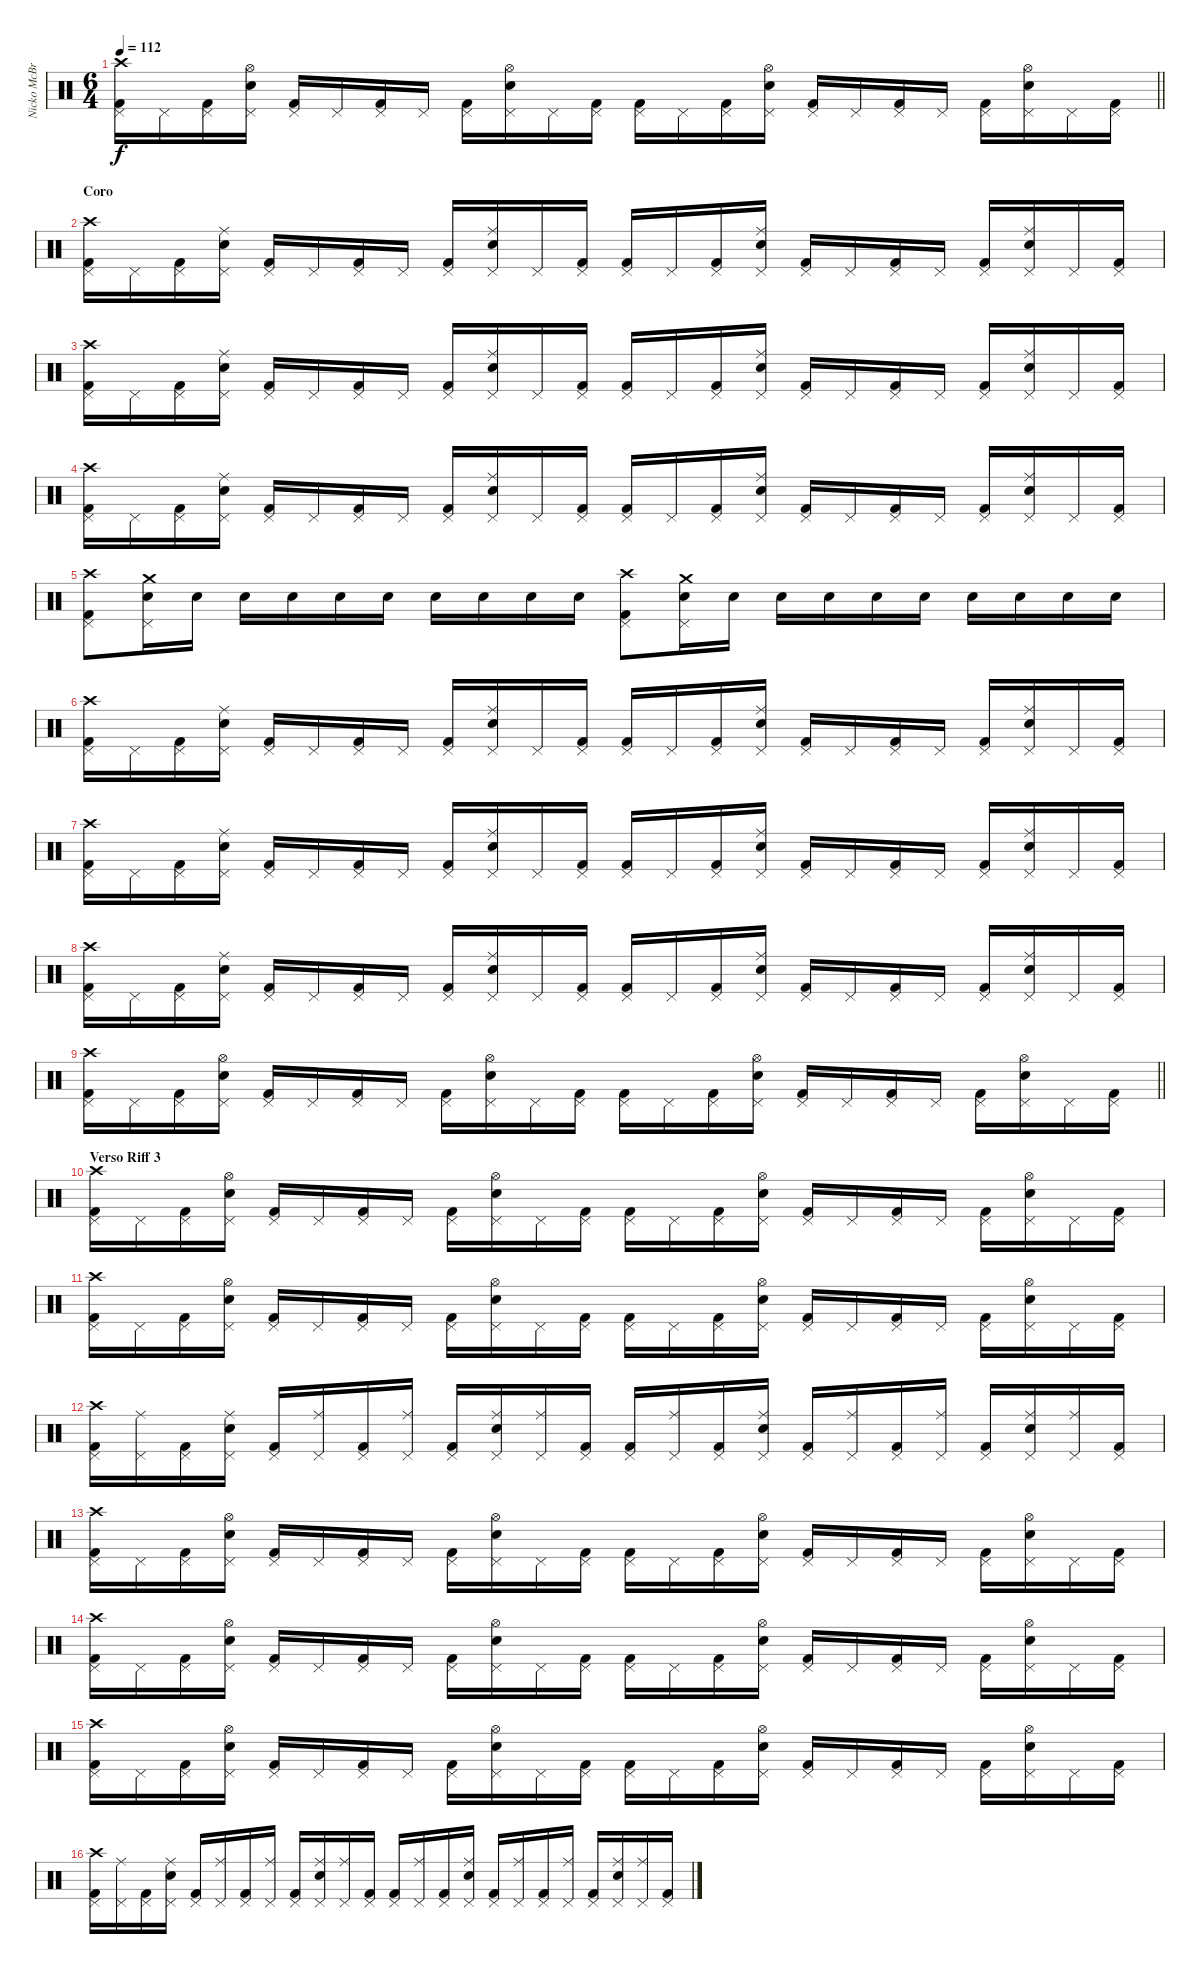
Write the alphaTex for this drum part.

\track ("Nicko McBrain" "Nicko McBr") {instrument percussion}
\staff {score}
\articulation defaults
\ts (6 4)
\tempo 112
\clef neutral
\barLineRight lightlight
\ks c
("Kick (hit) 2" "Pedal Hi-Hat (hit)" "Crash high (hit)").16{dy f} "Pedal Hi-Hat (hit)".16 ("Kick (hit) 2" "Pedal Hi-Hat (hit)").16 ("Snare (hit) 2" "Pedal Hi-Hat (hit)" "Hi-Hat (open)").16 ("Kick (hit) 2" "Pedal Hi-Hat (hit)").16 "Pedal Hi-Hat (hit)".16 ("Kick (hit) 2" "Pedal Hi-Hat (hit)").16 "Pedal Hi-Hat (hit)".16 ("Kick (hit) 2" "Pedal Hi-Hat (hit)").16 ("Snare (hit) 2" "Pedal Hi-Hat (hit)" "Hi-Hat (open)").16 "Pedal Hi-Hat (hit)".16 ("Kick (hit) 2" "Pedal Hi-Hat (hit)").16 ("Kick (hit) 2" "Pedal Hi-Hat (hit)").16 "Pedal Hi-Hat (hit)".16 ("Kick (hit) 2" "Pedal Hi-Hat (hit)").16 ("Snare (hit) 2" "Pedal Hi-Hat (hit)" "Hi-Hat (open)").16 ("Kick (hit) 2" "Pedal Hi-Hat (hit)").16 "Pedal Hi-Hat (hit)".16 ("Kick (hit) 2" "Pedal Hi-Hat (hit)").16 "Pedal Hi-Hat (hit)".16 ("Kick (hit) 2" "Pedal Hi-Hat (hit)").16 ("Snare (hit) 2" "Pedal Hi-Hat (hit)" "Hi-Hat (open)").16 "Pedal Hi-Hat (hit)".16 ("Kick (hit) 2" "Pedal Hi-Hat (hit)").16 |
\section ("" "Coro")
("Kick (hit) 2" "Pedal Hi-Hat (hit)" "Crash high (hit)").16 "Pedal Hi-Hat (hit)".16 ("Kick (hit) 2" "Pedal Hi-Hat (hit)").16 ("Snare (hit) 2" "Pedal Hi-Hat (hit)" "Ride (middle)").16 ("Kick (hit) 2" "Pedal Hi-Hat (hit)").16 "Pedal Hi-Hat (hit)".16 ("Kick (hit) 2" "Pedal Hi-Hat (hit)").16 "Pedal Hi-Hat (hit)".16 ("Kick (hit) 2" "Pedal Hi-Hat (hit)").16 ("Snare (hit) 2" "Pedal Hi-Hat (hit)" "Ride (middle)").16 "Pedal Hi-Hat (hit)".16 ("Kick (hit) 2" "Pedal Hi-Hat (hit)").16 ("Kick (hit) 2" "Pedal Hi-Hat (hit)").16 "Pedal Hi-Hat (hit)".16 ("Kick (hit) 2" "Pedal Hi-Hat (hit)").16 ("Snare (hit) 2" "Pedal Hi-Hat (hit)" "Ride (middle)").16 ("Kick (hit) 2" "Pedal Hi-Hat (hit)").16 "Pedal Hi-Hat (hit)".16 ("Kick (hit) 2" "Pedal Hi-Hat (hit)").16 "Pedal Hi-Hat (hit)".16 ("Kick (hit) 2" "Pedal Hi-Hat (hit)").16 ("Snare (hit) 2" "Pedal Hi-Hat (hit)" "Ride (middle)").16 "Pedal Hi-Hat (hit)".16 ("Kick (hit) 2" "Pedal Hi-Hat (hit)").16 |
("Kick (hit) 2" "Pedal Hi-Hat (hit)" "Crash high (hit)").16 "Pedal Hi-Hat (hit)".16 ("Kick (hit) 2" "Pedal Hi-Hat (hit)").16 ("Snare (hit) 2" "Pedal Hi-Hat (hit)" "Ride (middle)").16 ("Kick (hit) 2" "Pedal Hi-Hat (hit)").16 "Pedal Hi-Hat (hit)".16 ("Kick (hit) 2" "Pedal Hi-Hat (hit)").16 "Pedal Hi-Hat (hit)".16 ("Kick (hit) 2" "Pedal Hi-Hat (hit)").16 ("Snare (hit) 2" "Pedal Hi-Hat (hit)" "Ride (middle)").16 "Pedal Hi-Hat (hit)".16 ("Kick (hit) 2" "Pedal Hi-Hat (hit)").16 ("Kick (hit) 2" "Pedal Hi-Hat (hit)").16 "Pedal Hi-Hat (hit)".16 ("Kick (hit) 2" "Pedal Hi-Hat (hit)").16 ("Snare (hit) 2" "Pedal Hi-Hat (hit)" "Ride (middle)").16 ("Kick (hit) 2" "Pedal Hi-Hat (hit)").16 "Pedal Hi-Hat (hit)".16 ("Kick (hit) 2" "Pedal Hi-Hat (hit)").16 "Pedal Hi-Hat (hit)".16 ("Kick (hit) 2" "Pedal Hi-Hat (hit)").16 ("Snare (hit) 2" "Pedal Hi-Hat (hit)" "Ride (middle)").16 "Pedal Hi-Hat (hit)".16 ("Kick (hit) 2" "Pedal Hi-Hat (hit)").16 |
("Kick (hit) 2" "Pedal Hi-Hat (hit)" "Crash high (hit)").16 "Pedal Hi-Hat (hit)".16 ("Kick (hit) 2" "Pedal Hi-Hat (hit)").16 ("Snare (hit) 2" "Pedal Hi-Hat (hit)" "Ride (middle)").16 ("Kick (hit) 2" "Pedal Hi-Hat (hit)").16 "Pedal Hi-Hat (hit)".16 ("Kick (hit) 2" "Pedal Hi-Hat (hit)").16 "Pedal Hi-Hat (hit)".16 ("Kick (hit) 2" "Pedal Hi-Hat (hit)").16 ("Snare (hit) 2" "Pedal Hi-Hat (hit)" "Ride (middle)").16 "Pedal Hi-Hat (hit)".16 ("Kick (hit) 2" "Pedal Hi-Hat (hit)").16 ("Kick (hit) 2" "Pedal Hi-Hat (hit)").16 "Pedal Hi-Hat (hit)".16 ("Kick (hit) 2" "Pedal Hi-Hat (hit)").16 ("Snare (hit) 2" "Pedal Hi-Hat (hit)" "Ride (middle)").16 ("Kick (hit) 2" "Pedal Hi-Hat (hit)").16 "Pedal Hi-Hat (hit)".16 ("Kick (hit) 2" "Pedal Hi-Hat (hit)").16 "Pedal Hi-Hat (hit)".16 ("Kick (hit) 2" "Pedal Hi-Hat (hit)").16 ("Snare (hit) 2" "Pedal Hi-Hat (hit)" "Ride (middle)").16 "Pedal Hi-Hat (hit)".16 ("Kick (hit) 2" "Pedal Hi-Hat (hit)").16 |
("Kick (hit) 2" "Pedal Hi-Hat (hit)" "Crash high (hit)").8 ("Snare (hit) 2" "Pedal Hi-Hat (hit)" "Crash medium (hit)").16 "Snare (hit) 2".16 "Snare (hit) 2".16 "Snare (hit) 2".16 "Snare (hit) 2".16 "Snare (hit) 2".16 "Snare (hit) 2".16 "Snare (hit) 2".16 "Snare (hit) 2".16 "Snare (hit) 2".16 ("Kick (hit) 2" "Pedal Hi-Hat (hit)" "Crash high (hit)").8 ("Snare (hit) 2" "Pedal Hi-Hat (hit)" "Crash medium (hit)").16 "Snare (hit) 2".16 "Snare (hit) 2".16 "Snare (hit) 2".16 "Snare (hit) 2".16 "Snare (hit) 2".16 "Snare (hit) 2".16 "Snare (hit) 2".16 "Snare (hit) 2".16 "Snare (hit) 2".16 |
("Kick (hit) 2" "Pedal Hi-Hat (hit)" "Crash high (hit)").16 "Pedal Hi-Hat (hit)".16 ("Kick (hit) 2" "Pedal Hi-Hat (hit)").16 ("Snare (hit) 2" "Pedal Hi-Hat (hit)" "Ride (middle)").16 ("Kick (hit) 2" "Pedal Hi-Hat (hit)").16 "Pedal Hi-Hat (hit)".16 ("Kick (hit) 2" "Pedal Hi-Hat (hit)").16 "Pedal Hi-Hat (hit)".16 ("Kick (hit) 2" "Pedal Hi-Hat (hit)").16 ("Snare (hit) 2" "Pedal Hi-Hat (hit)" "Ride (middle)").16 "Pedal Hi-Hat (hit)".16 ("Kick (hit) 2" "Pedal Hi-Hat (hit)").16 ("Kick (hit) 2" "Pedal Hi-Hat (hit)").16 "Pedal Hi-Hat (hit)".16 ("Kick (hit) 2" "Pedal Hi-Hat (hit)").16 ("Snare (hit) 2" "Pedal Hi-Hat (hit)" "Ride (middle)").16 ("Kick (hit) 2" "Pedal Hi-Hat (hit)").16 "Pedal Hi-Hat (hit)".16 ("Kick (hit) 2" "Pedal Hi-Hat (hit)").16 "Pedal Hi-Hat (hit)".16 ("Kick (hit) 2" "Pedal Hi-Hat (hit)").16 ("Snare (hit) 2" "Pedal Hi-Hat (hit)" "Ride (middle)").16 "Pedal Hi-Hat (hit)".16 ("Kick (hit) 2" "Pedal Hi-Hat (hit)").16 |
("Kick (hit) 2" "Pedal Hi-Hat (hit)" "Crash high (hit)").16 "Pedal Hi-Hat (hit)".16 ("Kick (hit) 2" "Pedal Hi-Hat (hit)").16 ("Snare (hit) 2" "Pedal Hi-Hat (hit)" "Ride (middle)").16 ("Kick (hit) 2" "Pedal Hi-Hat (hit)").16 "Pedal Hi-Hat (hit)".16 ("Kick (hit) 2" "Pedal Hi-Hat (hit)").16 "Pedal Hi-Hat (hit)".16 ("Kick (hit) 2" "Pedal Hi-Hat (hit)").16 ("Snare (hit) 2" "Pedal Hi-Hat (hit)" "Ride (middle)").16 "Pedal Hi-Hat (hit)".16 ("Kick (hit) 2" "Pedal Hi-Hat (hit)").16 ("Kick (hit) 2" "Pedal Hi-Hat (hit)").16 "Pedal Hi-Hat (hit)".16 ("Kick (hit) 2" "Pedal Hi-Hat (hit)").16 ("Snare (hit) 2" "Pedal Hi-Hat (hit)" "Ride (middle)").16 ("Kick (hit) 2" "Pedal Hi-Hat (hit)").16 "Pedal Hi-Hat (hit)".16 ("Kick (hit) 2" "Pedal Hi-Hat (hit)").16 "Pedal Hi-Hat (hit)".16 ("Kick (hit) 2" "Pedal Hi-Hat (hit)").16 ("Snare (hit) 2" "Pedal Hi-Hat (hit)" "Ride (middle)").16 "Pedal Hi-Hat (hit)".16 ("Kick (hit) 2" "Pedal Hi-Hat (hit)").16 |
("Kick (hit) 2" "Pedal Hi-Hat (hit)" "Crash high (hit)").16 "Pedal Hi-Hat (hit)".16 ("Kick (hit) 2" "Pedal Hi-Hat (hit)").16 ("Snare (hit) 2" "Pedal Hi-Hat (hit)" "Ride (middle)").16 ("Kick (hit) 2" "Pedal Hi-Hat (hit)").16 "Pedal Hi-Hat (hit)".16 ("Kick (hit) 2" "Pedal Hi-Hat (hit)").16 "Pedal Hi-Hat (hit)".16 ("Kick (hit) 2" "Pedal Hi-Hat (hit)").16 ("Snare (hit) 2" "Pedal Hi-Hat (hit)" "Ride (middle)").16 "Pedal Hi-Hat (hit)".16 ("Kick (hit) 2" "Pedal Hi-Hat (hit)").16 ("Kick (hit) 2" "Pedal Hi-Hat (hit)").16 "Pedal Hi-Hat (hit)".16 ("Kick (hit) 2" "Pedal Hi-Hat (hit)").16 ("Snare (hit) 2" "Pedal Hi-Hat (hit)" "Ride (middle)").16 ("Kick (hit) 2" "Pedal Hi-Hat (hit)").16 "Pedal Hi-Hat (hit)".16 ("Kick (hit) 2" "Pedal Hi-Hat (hit)").16 "Pedal Hi-Hat (hit)".16 ("Kick (hit) 2" "Pedal Hi-Hat (hit)").16 ("Snare (hit) 2" "Pedal Hi-Hat (hit)" "Ride (middle)").16 "Pedal Hi-Hat (hit)".16 ("Kick (hit) 2" "Pedal Hi-Hat (hit)").16 |
\barLineRight lightlight
("Kick (hit) 2" "Pedal Hi-Hat (hit)" "Crash high (hit)").16 "Pedal Hi-Hat (hit)".16 ("Kick (hit) 2" "Pedal Hi-Hat (hit)").16 ("Snare (hit) 2" "Pedal Hi-Hat (hit)" "Hi-Hat (open)").16 ("Kick (hit) 2" "Pedal Hi-Hat (hit)").16 "Pedal Hi-Hat (hit)".16 ("Kick (hit) 2" "Pedal Hi-Hat (hit)").16 "Pedal Hi-Hat (hit)".16 ("Kick (hit) 2" "Pedal Hi-Hat (hit)").16 ("Snare (hit) 2" "Pedal Hi-Hat (hit)" "Hi-Hat (open)").16 "Pedal Hi-Hat (hit)".16 ("Kick (hit) 2" "Pedal Hi-Hat (hit)").16 ("Kick (hit) 2" "Pedal Hi-Hat (hit)").16 "Pedal Hi-Hat (hit)".16 ("Kick (hit) 2" "Pedal Hi-Hat (hit)").16 ("Snare (hit) 2" "Pedal Hi-Hat (hit)" "Hi-Hat (open)").16 ("Kick (hit) 2" "Pedal Hi-Hat (hit)").16 "Pedal Hi-Hat (hit)".16 ("Kick (hit) 2" "Pedal Hi-Hat (hit)").16 "Pedal Hi-Hat (hit)".16 ("Kick (hit) 2" "Pedal Hi-Hat (hit)").16 ("Snare (hit) 2" "Pedal Hi-Hat (hit)" "Hi-Hat (open)").16 "Pedal Hi-Hat (hit)".16 ("Kick (hit) 2" "Pedal Hi-Hat (hit)").16 |
\section ("" "Verso Riff 3")
("Kick (hit) 2" "Pedal Hi-Hat (hit)" "Crash high (hit)").16 "Pedal Hi-Hat (hit)".16 ("Kick (hit) 2" "Pedal Hi-Hat (hit)").16 ("Snare (hit) 2" "Pedal Hi-Hat (hit)" "Hi-Hat (open)").16 ("Kick (hit) 2" "Pedal Hi-Hat (hit)").16 "Pedal Hi-Hat (hit)".16 ("Kick (hit) 2" "Pedal Hi-Hat (hit)").16 "Pedal Hi-Hat (hit)".16 ("Kick (hit) 2" "Pedal Hi-Hat (hit)").16 ("Snare (hit) 2" "Pedal Hi-Hat (hit)" "Hi-Hat (open)").16 "Pedal Hi-Hat (hit)".16 ("Kick (hit) 2" "Pedal Hi-Hat (hit)").16 ("Kick (hit) 2" "Pedal Hi-Hat (hit)").16 "Pedal Hi-Hat (hit)".16 ("Kick (hit) 2" "Pedal Hi-Hat (hit)").16 ("Snare (hit) 2" "Pedal Hi-Hat (hit)" "Hi-Hat (open)").16 ("Kick (hit) 2" "Pedal Hi-Hat (hit)").16 "Pedal Hi-Hat (hit)".16 ("Kick (hit) 2" "Pedal Hi-Hat (hit)").16 "Pedal Hi-Hat (hit)".16 ("Kick (hit) 2" "Pedal Hi-Hat (hit)").16 ("Snare (hit) 2" "Pedal Hi-Hat (hit)" "Hi-Hat (open)").16 "Pedal Hi-Hat (hit)".16 ("Kick (hit) 2" "Pedal Hi-Hat (hit)").16 |
("Kick (hit) 2" "Pedal Hi-Hat (hit)" "Crash high (hit)").16 "Pedal Hi-Hat (hit)".16 ("Kick (hit) 2" "Pedal Hi-Hat (hit)").16 ("Snare (hit) 2" "Pedal Hi-Hat (hit)" "Hi-Hat (open)").16 ("Kick (hit) 2" "Pedal Hi-Hat (hit)").16 "Pedal Hi-Hat (hit)".16 ("Kick (hit) 2" "Pedal Hi-Hat (hit)").16 "Pedal Hi-Hat (hit)".16 ("Kick (hit) 2" "Pedal Hi-Hat (hit)").16 ("Snare (hit) 2" "Pedal Hi-Hat (hit)" "Hi-Hat (open)").16 "Pedal Hi-Hat (hit)".16 ("Kick (hit) 2" "Pedal Hi-Hat (hit)").16 ("Kick (hit) 2" "Pedal Hi-Hat (hit)").16 "Pedal Hi-Hat (hit)".16 ("Kick (hit) 2" "Pedal Hi-Hat (hit)").16 ("Snare (hit) 2" "Pedal Hi-Hat (hit)" "Hi-Hat (open)").16 ("Kick (hit) 2" "Pedal Hi-Hat (hit)").16 "Pedal Hi-Hat (hit)".16 ("Kick (hit) 2" "Pedal Hi-Hat (hit)").16 "Pedal Hi-Hat (hit)".16 ("Kick (hit) 2" "Pedal Hi-Hat (hit)").16 ("Snare (hit) 2" "Pedal Hi-Hat (hit)" "Hi-Hat (open)").16 "Pedal Hi-Hat (hit)".16 ("Kick (hit) 2" "Pedal Hi-Hat (hit)").16 |
("Kick (hit) 2" "Pedal Hi-Hat (hit)" "Crash high (hit)").16 ("Pedal Hi-Hat (hit)" "Ride (middle)").16 ("Kick (hit) 2" "Pedal Hi-Hat (hit)").16 ("Snare (hit) 2" "Pedal Hi-Hat (hit)" "Ride (middle)").16 ("Kick (hit) 2" "Pedal Hi-Hat (hit)").16 ("Pedal Hi-Hat (hit)" "Ride (middle)").16 ("Kick (hit) 2" "Pedal Hi-Hat (hit)").16 ("Pedal Hi-Hat (hit)" "Ride (middle)").16 ("Kick (hit) 2" "Pedal Hi-Hat (hit)").16 ("Snare (hit) 2" "Pedal Hi-Hat (hit)" "Ride (middle)").16 ("Pedal Hi-Hat (hit)" "Ride (middle)").16 ("Kick (hit) 2" "Pedal Hi-Hat (hit)").16 ("Kick (hit) 2" "Pedal Hi-Hat (hit)").16 ("Pedal Hi-Hat (hit)" "Ride (middle)").16 ("Kick (hit) 2" "Pedal Hi-Hat (hit)").16 ("Snare (hit) 2" "Pedal Hi-Hat (hit)" "Ride (middle)").16 ("Kick (hit) 2" "Pedal Hi-Hat (hit)").16 ("Pedal Hi-Hat (hit)" "Ride (middle)").16 ("Kick (hit) 2" "Pedal Hi-Hat (hit)").16 ("Pedal Hi-Hat (hit)" "Ride (middle)").16 ("Kick (hit) 2" "Pedal Hi-Hat (hit)").16 ("Snare (hit) 2" "Pedal Hi-Hat (hit)" "Ride (middle)").16 ("Pedal Hi-Hat (hit)" "Ride (middle)").16 ("Kick (hit) 2" "Pedal Hi-Hat (hit)").16 |
("Kick (hit) 2" "Pedal Hi-Hat (hit)" "Crash high (hit)").16 "Pedal Hi-Hat (hit)".16 ("Kick (hit) 2" "Pedal Hi-Hat (hit)").16 ("Snare (hit) 2" "Pedal Hi-Hat (hit)" "Hi-Hat (open)").16 ("Kick (hit) 2" "Pedal Hi-Hat (hit)").16 "Pedal Hi-Hat (hit)".16 ("Kick (hit) 2" "Pedal Hi-Hat (hit)").16 "Pedal Hi-Hat (hit)".16 ("Kick (hit) 2" "Pedal Hi-Hat (hit)").16 ("Snare (hit) 2" "Pedal Hi-Hat (hit)" "Hi-Hat (open)").16 "Pedal Hi-Hat (hit)".16 ("Kick (hit) 2" "Pedal Hi-Hat (hit)").16 ("Kick (hit) 2" "Pedal Hi-Hat (hit)").16 "Pedal Hi-Hat (hit)".16 ("Kick (hit) 2" "Pedal Hi-Hat (hit)").16 ("Snare (hit) 2" "Pedal Hi-Hat (hit)" "Hi-Hat (open)").16 ("Kick (hit) 2" "Pedal Hi-Hat (hit)").16 "Pedal Hi-Hat (hit)".16 ("Kick (hit) 2" "Pedal Hi-Hat (hit)").16 "Pedal Hi-Hat (hit)".16 ("Kick (hit) 2" "Pedal Hi-Hat (hit)").16 ("Snare (hit) 2" "Pedal Hi-Hat (hit)" "Hi-Hat (open)").16 "Pedal Hi-Hat (hit)".16 ("Kick (hit) 2" "Pedal Hi-Hat (hit)").16 |
("Kick (hit) 2" "Pedal Hi-Hat (hit)" "Crash high (hit)").16 "Pedal Hi-Hat (hit)".16 ("Kick (hit) 2" "Pedal Hi-Hat (hit)").16 ("Snare (hit) 2" "Pedal Hi-Hat (hit)" "Hi-Hat (open)").16 ("Kick (hit) 2" "Pedal Hi-Hat (hit)").16 "Pedal Hi-Hat (hit)".16 ("Kick (hit) 2" "Pedal Hi-Hat (hit)").16 "Pedal Hi-Hat (hit)".16 ("Kick (hit) 2" "Pedal Hi-Hat (hit)").16 ("Snare (hit) 2" "Pedal Hi-Hat (hit)" "Hi-Hat (open)").16 "Pedal Hi-Hat (hit)".16 ("Kick (hit) 2" "Pedal Hi-Hat (hit)").16 ("Kick (hit) 2" "Pedal Hi-Hat (hit)").16 "Pedal Hi-Hat (hit)".16 ("Kick (hit) 2" "Pedal Hi-Hat (hit)").16 ("Snare (hit) 2" "Pedal Hi-Hat (hit)" "Hi-Hat (open)").16 ("Kick (hit) 2" "Pedal Hi-Hat (hit)").16 "Pedal Hi-Hat (hit)".16 ("Kick (hit) 2" "Pedal Hi-Hat (hit)").16 "Pedal Hi-Hat (hit)".16 ("Kick (hit) 2" "Pedal Hi-Hat (hit)").16 ("Snare (hit) 2" "Pedal Hi-Hat (hit)" "Hi-Hat (open)").16 "Pedal Hi-Hat (hit)".16 ("Kick (hit) 2" "Pedal Hi-Hat (hit)").16 |
("Kick (hit) 2" "Pedal Hi-Hat (hit)" "Crash high (hit)").16 "Pedal Hi-Hat (hit)".16 ("Kick (hit) 2" "Pedal Hi-Hat (hit)").16 ("Snare (hit) 2" "Pedal Hi-Hat (hit)" "Hi-Hat (open)").16 ("Kick (hit) 2" "Pedal Hi-Hat (hit)").16 "Pedal Hi-Hat (hit)".16 ("Kick (hit) 2" "Pedal Hi-Hat (hit)").16 "Pedal Hi-Hat (hit)".16 ("Kick (hit) 2" "Pedal Hi-Hat (hit)").16 ("Snare (hit) 2" "Pedal Hi-Hat (hit)" "Hi-Hat (open)").16 "Pedal Hi-Hat (hit)".16 ("Kick (hit) 2" "Pedal Hi-Hat (hit)").16 ("Kick (hit) 2" "Pedal Hi-Hat (hit)").16 "Pedal Hi-Hat (hit)".16 ("Kick (hit) 2" "Pedal Hi-Hat (hit)").16 ("Snare (hit) 2" "Pedal Hi-Hat (hit)" "Hi-Hat (open)").16 ("Kick (hit) 2" "Pedal Hi-Hat (hit)").16 "Pedal Hi-Hat (hit)".16 ("Kick (hit) 2" "Pedal Hi-Hat (hit)").16 "Pedal Hi-Hat (hit)".16 ("Kick (hit) 2" "Pedal Hi-Hat (hit)").16 ("Snare (hit) 2" "Pedal Hi-Hat (hit)" "Hi-Hat (open)").16 "Pedal Hi-Hat (hit)".16 ("Kick (hit) 2" "Pedal Hi-Hat (hit)").16 |
("Kick (hit) 2" "Pedal Hi-Hat (hit)" "Crash high (hit)").16 ("Pedal Hi-Hat (hit)" "Ride (middle)").16 ("Kick (hit) 2" "Pedal Hi-Hat (hit)").16 ("Snare (hit) 2" "Pedal Hi-Hat (hit)" "Ride (middle)").16 ("Kick (hit) 2" "Pedal Hi-Hat (hit)").16 ("Pedal Hi-Hat (hit)" "Ride (middle)").16 ("Kick (hit) 2" "Pedal Hi-Hat (hit)").16 ("Pedal Hi-Hat (hit)" "Ride (middle)").16 ("Kick (hit) 2" "Pedal Hi-Hat (hit)").16 ("Snare (hit) 2" "Pedal Hi-Hat (hit)" "Ride (middle)").16 ("Pedal Hi-Hat (hit)" "Ride (middle)").16 ("Kick (hit) 2" "Pedal Hi-Hat (hit)").16 ("Kick (hit) 2" "Pedal Hi-Hat (hit)").16 ("Pedal Hi-Hat (hit)" "Ride (middle)").16 ("Kick (hit) 2" "Pedal Hi-Hat (hit)").16 ("Snare (hit) 2" "Pedal Hi-Hat (hit)" "Ride (middle)").16 ("Kick (hit) 2" "Pedal Hi-Hat (hit)").16 ("Pedal Hi-Hat (hit)" "Ride (middle)").16 ("Kick (hit) 2" "Pedal Hi-Hat (hit)").16 ("Pedal Hi-Hat (hit)" "Ride (middle)").16 ("Kick (hit) 2" "Pedal Hi-Hat (hit)").16 ("Snare (hit) 2" "Pedal Hi-Hat (hit)" "Ride (middle)").16 ("Pedal Hi-Hat (hit)" "Ride (middle)").16 ("Kick (hit) 2" "Pedal Hi-Hat (hit)").16
